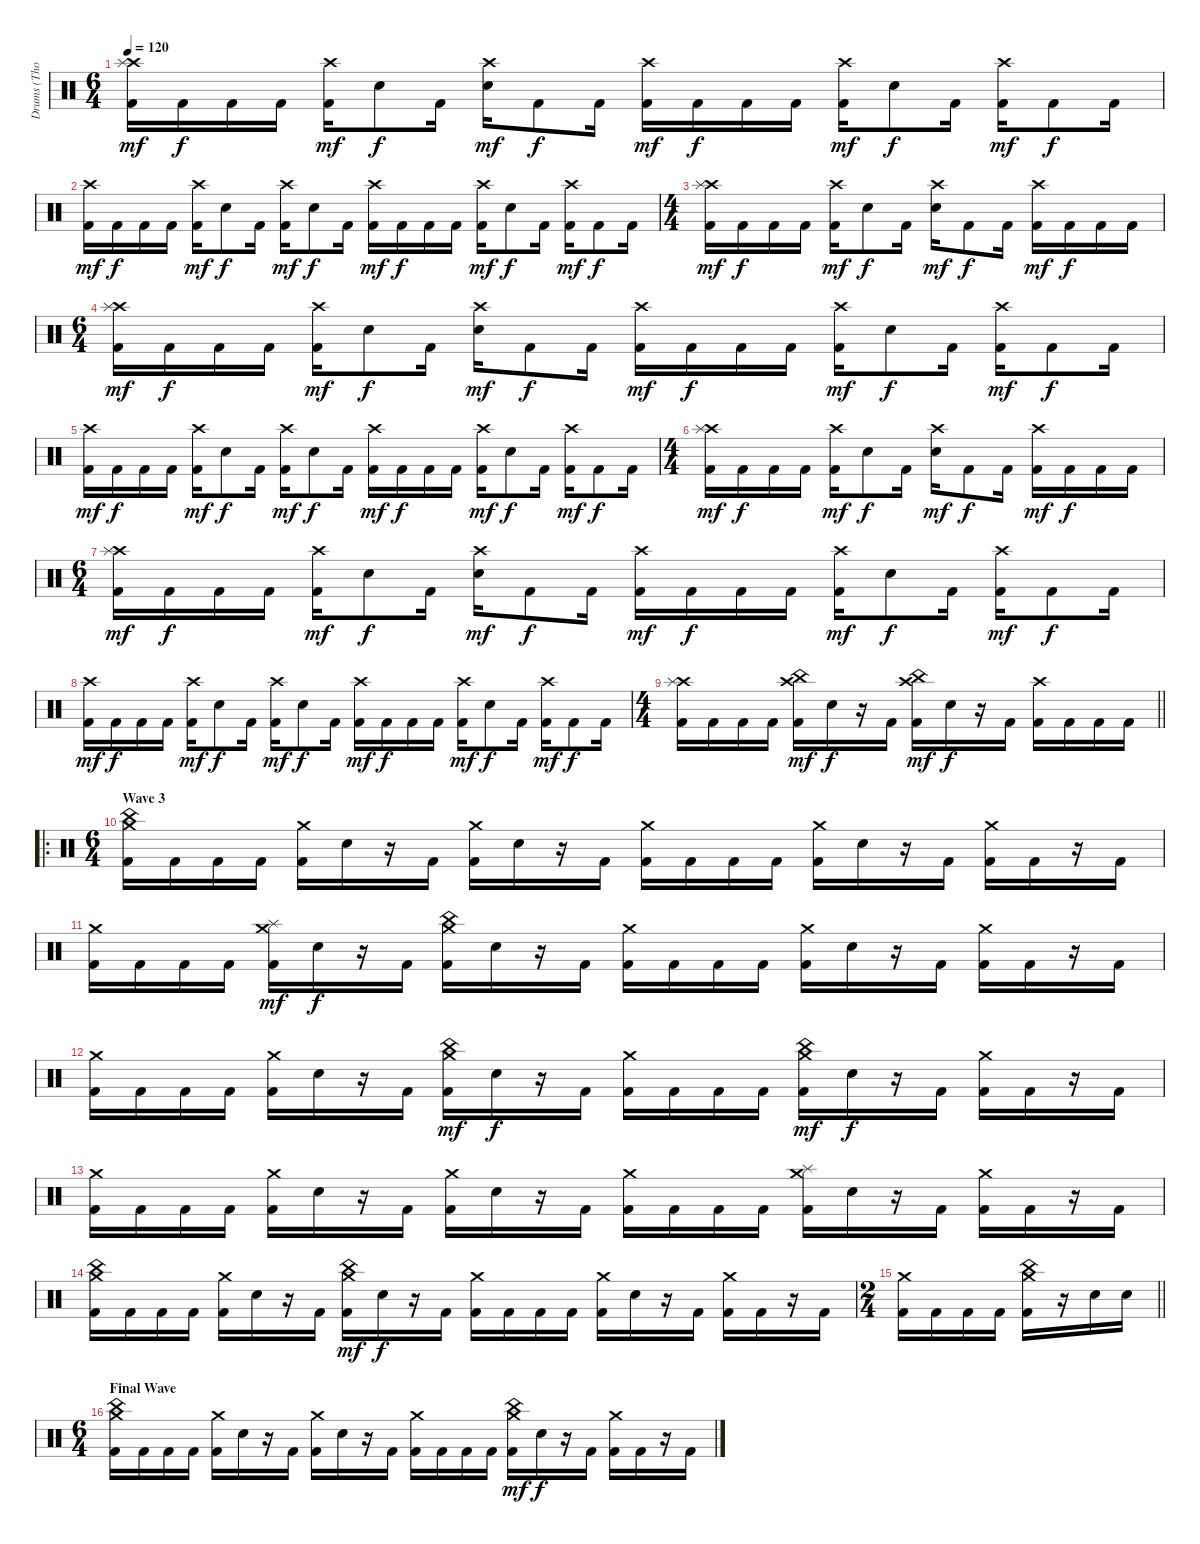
\track ("Drums (Thomas Haake)" "Drums (Tho") {instrument percussion}
\staff {score}
\articulation defaults
\ts (6 4)
\tempo 120
\clef neutral
\ks c
("Crash high (hit)" "Splash (hit)" "Kick (hit) 2").16{dy mf} "Kick (hit) 2".16{dy f} "Kick (hit) 2".16 "Kick (hit) 2".16 ("Crash high (hit)" "Kick (hit) 2").16{dy mf} "Electric Snare (hit)".8{dy f} "Kick (hit) 2".16 ("Crash high (hit)" "Electric Snare (hit)").16{dy mf} "Kick (hit) 2".8{dy f} "Kick (hit) 2".16 ("Crash high (hit)" "Kick (hit) 2").16{dy mf} "Kick (hit) 2".16{dy f} "Kick (hit) 2".16 "Kick (hit) 2".16 ("Crash high (hit)" "Kick (hit) 2").16{dy mf} "Electric Snare (hit)".8{dy f} "Kick (hit) 2".16 ("Crash high (hit)" "Kick (hit) 2").16{dy mf} "Kick (hit) 2".8{dy f} "Kick (hit) 2".16 |
("Crash high (hit)" "Kick (hit) 2").16{dy mf} "Kick (hit) 2".16{dy f} "Kick (hit) 2".16 "Kick (hit) 2".16 ("Crash high (hit)" "Kick (hit) 2").16{dy mf} "Electric Snare (hit)".8{dy f} "Kick (hit) 2".16 ("Crash high (hit)" "Kick (hit) 2").16{dy mf} "Electric Snare (hit)".8{dy f} "Kick (hit) 2".16 ("Crash high (hit)" "Kick (hit) 2").16{dy mf} "Kick (hit) 2".16{dy f} "Kick (hit) 2".16 "Kick (hit) 2".16 ("Crash high (hit)" "Kick (hit) 2").16{dy mf} "Electric Snare (hit)".8{dy f} "Kick (hit) 2".16 ("Crash high (hit)" "Kick (hit) 2").16{dy mf} "Kick (hit) 2".8{dy f} "Kick (hit) 2".16 |
\ts (4 4)
("Crash high (hit)" "Splash (hit)" "Kick (hit) 2").16{dy mf} "Kick (hit) 2".16{dy f} "Kick (hit) 2".16 "Kick (hit) 2".16 ("Crash high (hit)" "Kick (hit) 2").16{dy mf} "Electric Snare (hit)".8{dy f} "Kick (hit) 2".16 ("Crash high (hit)" "Electric Snare (hit)").16{dy mf} "Kick (hit) 2".8{dy f} "Kick (hit) 2".16 ("Crash high (hit)" "Kick (hit) 2").16{dy mf} "Kick (hit) 2".16{dy f} "Kick (hit) 2".16 "Kick (hit) 2".16 |
\ts (6 4)
("Crash high (hit)" "Splash (hit)" "Kick (hit) 2").16{dy mf} "Kick (hit) 2".16{dy f} "Kick (hit) 2".16 "Kick (hit) 2".16 ("Crash high (hit)" "Kick (hit) 2").16{dy mf} "Electric Snare (hit)".8{dy f} "Kick (hit) 2".16 ("Crash high (hit)" "Electric Snare (hit)").16{dy mf} "Kick (hit) 2".8{dy f} "Kick (hit) 2".16 ("Crash high (hit)" "Kick (hit) 2").16{dy mf} "Kick (hit) 2".16{dy f} "Kick (hit) 2".16 "Kick (hit) 2".16 ("Crash high (hit)" "Kick (hit) 2").16{dy mf} "Electric Snare (hit)".8{dy f} "Kick (hit) 2".16 ("Crash high (hit)" "Kick (hit) 2").16{dy mf} "Kick (hit) 2".8{dy f} "Kick (hit) 2".16 |
("Crash high (hit)" "Kick (hit) 2").16{dy mf} "Kick (hit) 2".16{dy f} "Kick (hit) 2".16 "Kick (hit) 2".16 ("Crash high (hit)" "Kick (hit) 2").16{dy mf} "Electric Snare (hit)".8{dy f} "Kick (hit) 2".16 ("Crash high (hit)" "Kick (hit) 2").16{dy mf} "Electric Snare (hit)".8{dy f} "Kick (hit) 2".16 ("Crash high (hit)" "Kick (hit) 2").16{dy mf} "Kick (hit) 2".16{dy f} "Kick (hit) 2".16 "Kick (hit) 2".16 ("Crash high (hit)" "Kick (hit) 2").16{dy mf} "Electric Snare (hit)".8{dy f} "Kick (hit) 2".16 ("Crash high (hit)" "Kick (hit) 2").16{dy mf} "Kick (hit) 2".8{dy f} "Kick (hit) 2".16 |
\ts (4 4)
("Crash high (hit)" "Splash (hit)" "Kick (hit) 2").16{dy mf} "Kick (hit) 2".16{dy f} "Kick (hit) 2".16 "Kick (hit) 2".16 ("Crash high (hit)" "Kick (hit) 2").16{dy mf} "Electric Snare (hit)".8{dy f} "Kick (hit) 2".16 ("Crash high (hit)" "Electric Snare (hit)").16{dy mf} "Kick (hit) 2".8{dy f} "Kick (hit) 2".16 ("Crash high (hit)" "Kick (hit) 2").16{dy mf} "Kick (hit) 2".16{dy f} "Kick (hit) 2".16 "Kick (hit) 2".16 |
\ts (6 4)
("Crash high (hit)" "Splash (hit)" "Kick (hit) 2").16{dy mf} "Kick (hit) 2".16{dy f} "Kick (hit) 2".16 "Kick (hit) 2".16 ("Crash high (hit)" "Kick (hit) 2").16{dy mf} "Electric Snare (hit)".8{dy f} "Kick (hit) 2".16 ("Crash high (hit)" "Electric Snare (hit)").16{dy mf} "Kick (hit) 2".8{dy f} "Kick (hit) 2".16 ("Crash high (hit)" "Kick (hit) 2").16{dy mf} "Kick (hit) 2".16{dy f} "Kick (hit) 2".16 "Kick (hit) 2".16 ("Crash high (hit)" "Kick (hit) 2").16{dy mf} "Electric Snare (hit)".8{dy f} "Kick (hit) 2".16 ("Crash high (hit)" "Kick (hit) 2").16{dy mf} "Kick (hit) 2".8{dy f} "Kick (hit) 2".16 |
("Crash high (hit)" "Kick (hit) 2").16{dy mf} "Kick (hit) 2".16{dy f} "Kick (hit) 2".16 "Kick (hit) 2".16 ("Crash high (hit)" "Kick (hit) 2").16{dy mf} "Electric Snare (hit)".8{dy f} "Kick (hit) 2".16 ("Crash high (hit)" "Kick (hit) 2").16{dy mf} "Electric Snare (hit)".8{dy f} "Kick (hit) 2".16 ("Crash high (hit)" "Kick (hit) 2").16{dy mf} "Kick (hit) 2".16{dy f} "Kick (hit) 2".16 "Kick (hit) 2".16 ("Crash high (hit)" "Kick (hit) 2").16{dy mf} "Electric Snare (hit)".8{dy f} "Kick (hit) 2".16 ("Crash high (hit)" "Kick (hit) 2").16{dy mf} "Kick (hit) 2".8{dy f} "Kick (hit) 2".16 |
\ts (4 4)
\barLineRight lightlight
("Crash high (hit)" "Splash (hit)" "Kick (hit) 2").16 "Kick (hit) 2".16 "Kick (hit) 2".16 "Kick (hit) 2".16 ("Crash high (hit)" "China (hit)" "Kick (hit) 2").16{dy mf} "Electric Snare (hit)".16{dy f} r.16 "Kick (hit) 2".16 ("Crash high (hit)" "China (hit)" "Kick (hit) 2").16{dy mf} "Electric Snare (hit)".16{dy f} r.16 "Kick (hit) 2".16 ("Crash high (hit)" "Kick (hit) 2").16 "Kick (hit) 2".16 "Kick (hit) 2".16 "Kick (hit) 2".16 |
\ro
\ts (6 4)
\section ("" "Wave 3")
("Crash medium (hit)" "China (hit)" "Kick (hit) 2").16 "Kick (hit) 2".16 "Kick (hit) 2".16 "Kick (hit) 2".16 ("Crash medium (hit)" "Kick (hit) 2").16 "Electric Snare (hit)".16 r.16 "Kick (hit) 2".16 ("Crash medium (hit)" "Kick (hit) 2").16 "Electric Snare (hit)".16 r.16 "Kick (hit) 2".16 ("Crash medium (hit)" "Kick (hit) 2").16 "Kick (hit) 2".16 "Kick (hit) 2".16 "Kick (hit) 2".16 ("Crash medium (hit)" "Kick (hit) 2").16 "Electric Snare (hit)".16 r.16 "Kick (hit) 2".16 ("Crash medium (hit)" "Kick (hit) 2").16 "Kick (hit) 2".16 r.16 "Kick (hit) 2".16 |
("Crash medium (hit)" "Kick (hit) 2").16 "Kick (hit) 2".16 "Kick (hit) 2".16 "Kick (hit) 2".16 ("Crash medium (hit)" "Splash (hit)" "Kick (hit) 2").16{dy mf} "Electric Snare (hit)".16{dy f} r.16 "Kick (hit) 2".16 ("Crash medium (hit)" "China (hit)" "Kick (hit) 2").16 "Electric Snare (hit)".16 r.16 "Kick (hit) 2".16 ("Crash medium (hit)" "Kick (hit) 2").16 "Kick (hit) 2".16 "Kick (hit) 2".16 "Kick (hit) 2".16 ("Crash medium (hit)" "Kick (hit) 2").16 "Electric Snare (hit)".16 r.16 "Kick (hit) 2".16 ("Crash medium (hit)" "Kick (hit) 2").16 "Kick (hit) 2".16 r.16 "Kick (hit) 2".16 |
("Crash medium (hit)" "Kick (hit) 2").16 "Kick (hit) 2".16 "Kick (hit) 2".16 "Kick (hit) 2".16 ("Crash medium (hit)" "Kick (hit) 2").16 "Electric Snare (hit)".16 r.16 "Kick (hit) 2".16 ("Crash medium (hit)" "China (hit)" "Kick (hit) 2").16{dy mf} "Electric Snare (hit)".16{dy f} r.16 "Kick (hit) 2".16 ("Crash medium (hit)" "Kick (hit) 2").16 "Kick (hit) 2".16 "Kick (hit) 2".16 "Kick (hit) 2".16 ("Crash medium (hit)" "China (hit)" "Kick (hit) 2").16{dy mf} "Electric Snare (hit)".16{dy f} r.16 "Kick (hit) 2".16 ("Crash medium (hit)" "Kick (hit) 2").16 "Kick (hit) 2".16 r.16 "Kick (hit) 2".16 |
("Crash medium (hit)" "Kick (hit) 2").16 "Kick (hit) 2".16 "Kick (hit) 2".16 "Kick (hit) 2".16 ("Crash medium (hit)" "Kick (hit) 2").16 "Electric Snare (hit)".16 r.16 "Kick (hit) 2".16 ("Crash medium (hit)" "Kick (hit) 2").16 "Electric Snare (hit)".16 r.16 "Kick (hit) 2".16 ("Crash medium (hit)" "Kick (hit) 2").16 "Kick (hit) 2".16 "Kick (hit) 2".16 "Kick (hit) 2".16 ("Crash medium (hit)" "Splash (hit)" "Kick (hit) 2").16 "Electric Snare (hit)".16 r.16 "Kick (hit) 2".16 ("Crash medium (hit)" "Kick (hit) 2").16 "Kick (hit) 2".16 r.16 "Kick (hit) 2".16 |
("Crash medium (hit)" "China (hit)" "Kick (hit) 2").16 "Kick (hit) 2".16 "Kick (hit) 2".16 "Kick (hit) 2".16 ("Crash medium (hit)" "Kick (hit) 2").16 "Electric Snare (hit)".16 r.16 "Kick (hit) 2".16 ("Crash medium (hit)" "China (hit)" "Kick (hit) 2").16{dy mf} "Electric Snare (hit)".16{dy f} r.16 "Kick (hit) 2".16 ("Crash medium (hit)" "Kick (hit) 2").16 "Kick (hit) 2".16 "Kick (hit) 2".16 "Kick (hit) 2".16 ("Crash medium (hit)" "Kick (hit) 2").16 "Electric Snare (hit)".16 r.16 "Kick (hit) 2".16 ("Crash medium (hit)" "Kick (hit) 2").16 "Kick (hit) 2".16 r.16 "Kick (hit) 2".16 |
\ts (2 4)
\barLineRight lightlight
("Crash medium (hit)" "Kick (hit) 2").16 "Kick (hit) 2".16 "Kick (hit) 2".16 "Kick (hit) 2".16 ("Crash medium (hit)" "China (hit)" "Kick (hit) 2").16 r.16 "Electric Snare (hit)".16 "Electric Snare (hit)".16 |
\ts (6 4)
\section ("" "Final Wave")
("Crash medium (hit)" "China (hit)" "Kick (hit) 2").16 "Kick (hit) 2".16 "Kick (hit) 2".16 "Kick (hit) 2".16 ("Crash medium (hit)" "Kick (hit) 2").16 "Electric Snare (hit)".16 r.16 "Kick (hit) 2".16 ("Crash medium (hit)" "Kick (hit) 2").16 "Electric Snare (hit)".16 r.16 "Kick (hit) 2".16 ("Crash medium (hit)" "Kick (hit) 2").16 "Kick (hit) 2".16 "Kick (hit) 2".16 "Kick (hit) 2".16 ("Crash medium (hit)" "China (hit)" "Kick (hit) 2").16{dy mf} "Electric Snare (hit)".16{dy f} r.16 "Kick (hit) 2".16 ("Crash medium (hit)" "Kick (hit) 2").16 "Kick (hit) 2".16 r.16 "Kick (hit) 2".16
